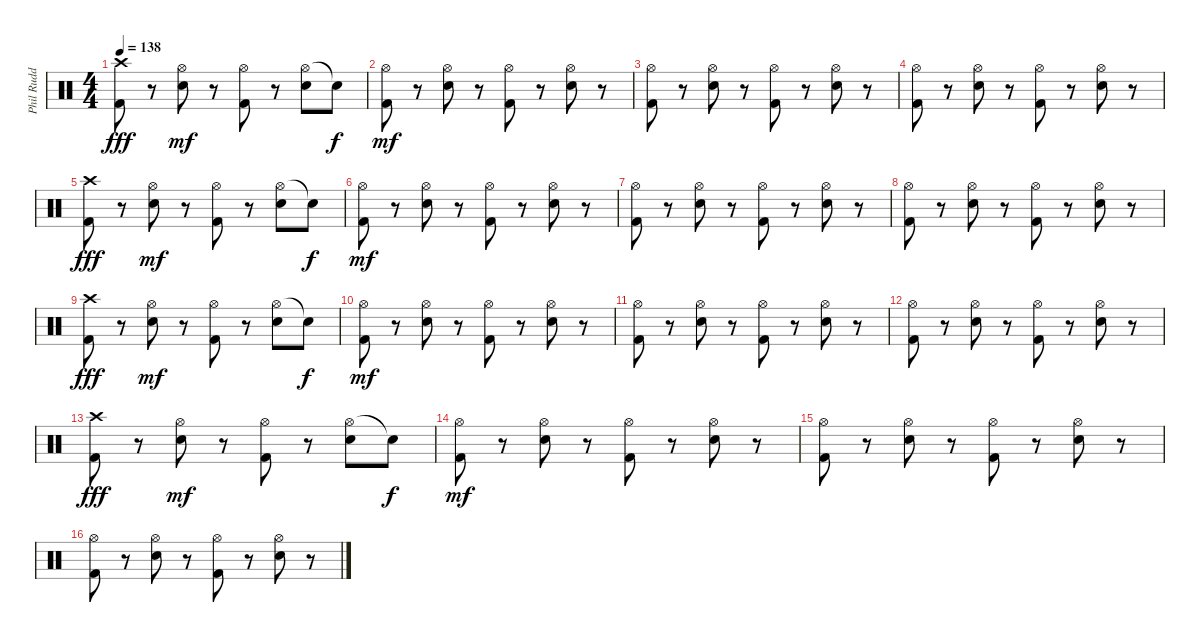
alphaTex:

\track ("Phil Rudd" "Phil Rudd") {instrument percussion}
\staff {score}
\articulation defaults
\ts (4 4)
\tempo 138
\clef neutral
\ks c
("Crash high (hit)" "Kick (hit) 2").8{dy fff} r.8 ("Hi-Hat (open)" "Snare (hit) 2").8{dy mf} r.8 ("Hi-Hat (open)" "Kick (hit) 2").8 r.8 ("Hi-Hat (open)" "Snare (hit) 2").8 "Snare (hit)"{t}.8{dy f} |
("Hi-Hat (open)" "Kick (hit) 2").8{dy mf} r.8 ("Hi-Hat (open)" "Snare (hit) 2").8 r.8 ("Hi-Hat (open)" "Kick (hit) 2").8 r.8 ("Hi-Hat (open)" "Snare (hit) 2").8 r.8 |
("Hi-Hat (open)" "Kick (hit) 2").8 r.8 ("Hi-Hat (open)" "Snare (hit) 2").8 r.8 ("Hi-Hat (open)" "Kick (hit) 2").8 r.8 ("Hi-Hat (open)" "Snare (hit) 2").8 r.8 |
("Hi-Hat (open)" "Kick (hit) 2").8 r.8 ("Hi-Hat (open)" "Snare (hit) 2").8 r.8 ("Hi-Hat (open)" "Kick (hit) 2").8 r.8 ("Hi-Hat (open)" "Snare (hit) 2").8 r.8 |
("Crash high (hit)" "Kick (hit) 2").8{dy fff} r.8 ("Hi-Hat (open)" "Snare (hit) 2").8{dy mf} r.8 ("Hi-Hat (open)" "Kick (hit) 2").8 r.8 ("Hi-Hat (open)" "Snare (hit) 2").8 "Snare (hit)"{t}.8{dy f} |
("Hi-Hat (open)" "Kick (hit) 2").8{dy mf} r.8 ("Hi-Hat (open)" "Snare (hit) 2").8 r.8 ("Hi-Hat (open)" "Kick (hit) 2").8 r.8 ("Hi-Hat (open)" "Snare (hit) 2").8 r.8 |
("Hi-Hat (open)" "Kick (hit) 2").8 r.8 ("Hi-Hat (open)" "Snare (hit) 2").8 r.8 ("Hi-Hat (open)" "Kick (hit) 2").8 r.8 ("Hi-Hat (open)" "Snare (hit) 2").8 r.8 |
("Hi-Hat (open)" "Kick (hit) 2").8 r.8 ("Hi-Hat (open)" "Snare (hit) 2").8 r.8 ("Hi-Hat (open)" "Kick (hit) 2").8 r.8 ("Hi-Hat (open)" "Snare (hit) 2").8 r.8 |
("Crash high (hit)" "Kick (hit) 2").8{dy fff} r.8 ("Hi-Hat (open)" "Snare (hit) 2").8{dy mf} r.8 ("Hi-Hat (open)" "Kick (hit) 2").8 r.8 ("Hi-Hat (open)" "Snare (hit) 2").8 "Snare (hit)"{t}.8{dy f} |
("Hi-Hat (open)" "Kick (hit) 2").8{dy mf} r.8 ("Hi-Hat (open)" "Snare (hit) 2").8 r.8 ("Hi-Hat (open)" "Kick (hit) 2").8 r.8 ("Hi-Hat (open)" "Snare (hit) 2").8 r.8 |
("Hi-Hat (open)" "Kick (hit) 2").8 r.8 ("Hi-Hat (open)" "Snare (hit) 2").8 r.8 ("Hi-Hat (open)" "Kick (hit) 2").8 r.8 ("Hi-Hat (open)" "Snare (hit) 2").8 r.8 |
("Hi-Hat (open)" "Kick (hit) 2").8 r.8 ("Hi-Hat (open)" "Snare (hit) 2").8 r.8 ("Hi-Hat (open)" "Kick (hit) 2").8 r.8 ("Hi-Hat (open)" "Snare (hit) 2").8 r.8 |
("Crash high (hit)" "Kick (hit) 2").8{dy fff} r.8 ("Hi-Hat (open)" "Snare (hit) 2").8{dy mf} r.8 ("Hi-Hat (open)" "Kick (hit) 2").8 r.8 ("Hi-Hat (open)" "Snare (hit) 2").8 "Snare (hit)"{t}.8{dy f} |
("Hi-Hat (open)" "Kick (hit) 2").8{dy mf} r.8 ("Hi-Hat (open)" "Snare (hit) 2").8 r.8 ("Hi-Hat (open)" "Kick (hit) 2").8 r.8 ("Hi-Hat (open)" "Snare (hit) 2").8 r.8 |
("Hi-Hat (open)" "Kick (hit) 2").8 r.8 ("Hi-Hat (open)" "Snare (hit) 2").8 r.8 ("Hi-Hat (open)" "Kick (hit) 2").8 r.8 ("Hi-Hat (open)" "Snare (hit) 2").8 r.8 |
("Hi-Hat (open)" "Kick (hit) 2").8 r.8 ("Hi-Hat (open)" "Snare (hit) 2").8 r.8 ("Hi-Hat (open)" "Kick (hit) 2").8 r.8 ("Hi-Hat (open)" "Snare (hit) 2").8 r.8
